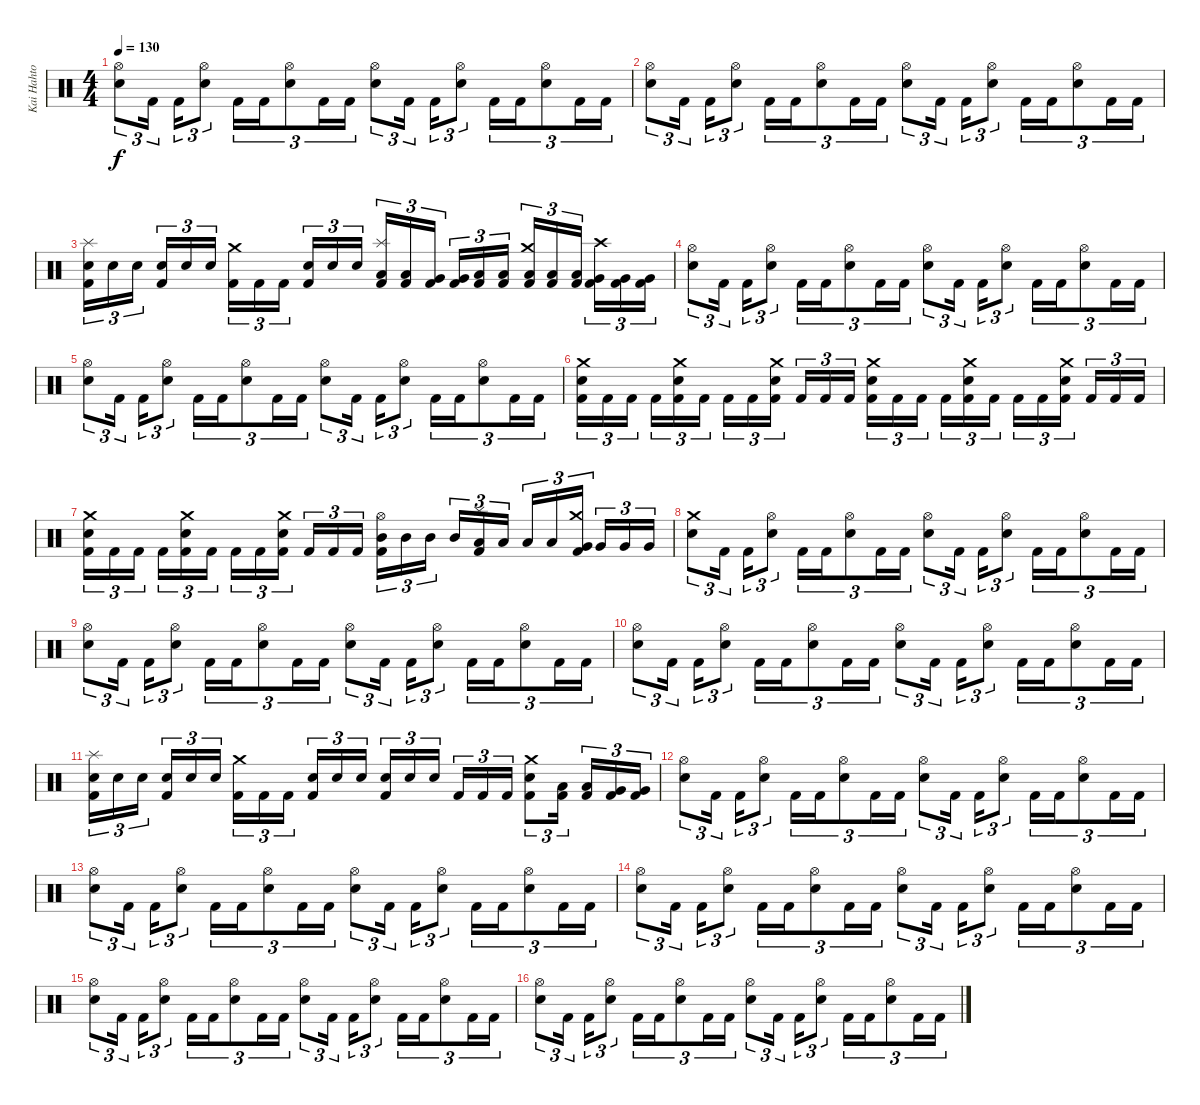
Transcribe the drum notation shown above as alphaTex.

\track ("Kai Hahto" "Kai Hahto") {instrument percussion}
\staff {score}
\articulation defaults
\ts (4 4)
\tempo 130
\clef neutral
\ks c
("Hi-Hat (open)" "Snare (hit) 2").8{tu (3 2) dy f} "Kick (hit) 2".16{tu (3 2) beam splitsecondary} "Kick (hit) 2".16{tu (3 2)} ("Hi-Hat (open)" "Snare (hit) 2").8{tu (3 2)} "Kick (hit) 2".16{tu (3 2)} "Kick (hit) 2".16{tu (3 2)} ("Hi-Hat (open)" "Snare (hit) 2").8{tu (3 2)} "Kick (hit) 2".16{tu (3 2)} "Kick (hit) 2".16{tu (3 2)} ("Hi-Hat (open)" "Snare (hit) 2").8{tu (3 2)} "Kick (hit) 2".16{tu (3 2) beam splitsecondary} "Kick (hit) 2".16{tu (3 2)} ("Hi-Hat (open)" "Snare (hit) 2").8{tu (3 2)} "Kick (hit) 2".16{tu (3 2)} "Kick (hit) 2".16{tu (3 2)} ("Hi-Hat (open)" "Snare (hit) 2").8{tu (3 2)} "Kick (hit) 2".16{tu (3 2)} "Kick (hit) 2".16{tu (3 2)} |
("Hi-Hat (open)" "Snare (hit) 2").8{tu (3 2)} "Kick (hit) 2".16{tu (3 2) beam splitsecondary} "Kick (hit) 2".16{tu (3 2)} ("Hi-Hat (open)" "Snare (hit) 2").8{tu (3 2)} "Kick (hit) 2".16{tu (3 2)} "Kick (hit) 2".16{tu (3 2)} ("Hi-Hat (open)" "Snare (hit) 2").8{tu (3 2)} "Kick (hit) 2".16{tu (3 2)} "Kick (hit) 2".16{tu (3 2)} ("Hi-Hat (open)" "Snare (hit) 2").8{tu (3 2)} "Kick (hit) 2".16{tu (3 2) beam splitsecondary} "Kick (hit) 2".16{tu (3 2)} ("Hi-Hat (open)" "Snare (hit) 2").8{tu (3 2)} "Kick (hit) 2".16{tu (3 2)} "Kick (hit) 2".16{tu (3 2)} ("Hi-Hat (open)" "Snare (hit) 2").8{tu (3 2)} "Kick (hit) 2".16{tu (3 2)} "Kick (hit) 2".16{tu (3 2)} |
("Splash (hit)" "Snare (hit) 2" "Kick (hit) 2").16{tu (3 2)} "Snare (hit) 2".16{tu (3 2)} "Snare (hit) 2".16{tu (3 2) beam splitsecondary} ("Snare (hit) 2" "Kick (hit) 2").16{tu (3 2)} "Snare (hit) 2".16{tu (3 2)} "Snare (hit) 2".16{tu (3 2)} ("Crash medium (hit)" "Kick (hit) 2").16{tu (3 2)} "Kick (hit) 2".16{tu (3 2)} "Kick (hit) 2".16{tu (3 2) beam splitsecondary} ("Snare (hit) 2" "Kick (hit) 2").16{tu (3 2)} "Snare (hit) 2".16{tu (3 2)} "Snare (hit) 2".16{tu (3 2)} ("Splash (hit)" "Low Tom (hit)" "Kick (hit) 2").16{tu (3 2)} ("Low Tom (hit)" "Kick (hit) 2").16{tu (3 2)} ("Very Low Tom (hit)" "Kick (hit) 2").16{tu (3 2) beam splitsecondary} ("Very Low Tom (hit)" "Kick (hit) 2").16{tu (3 2)} ("Low Floor Tom (hit)" "Kick (hit) 2").16{tu (3 2)} ("Low Floor Tom (hit)" "Kick (hit) 2").16{tu (3 2)} ("Crash medium (hit)" "Low Tom (hit)" "Kick (hit) 2").16{tu (3 2)} ("Low Tom (hit)" "Kick (hit) 2").16{tu (3 2)} ("Low Tom (hit)" "Kick (hit) 2").16{tu (3 2) beam splitsecondary} ("Crash high (hit)" "Very Low Tom (hit)" "Kick (hit) 2").16{tu (3 2)} ("Very Low Tom (hit)" "Kick (hit) 2").16{tu (3 2)} ("Very Low Tom (hit)" "Kick (hit) 2").16{tu (3 2)} |
("Hi-Hat (open)" "Snare (hit) 2").8{tu (3 2)} "Kick (hit) 2".16{tu (3 2) beam splitsecondary} "Kick (hit) 2".16{tu (3 2)} ("Hi-Hat (open)" "Snare (hit) 2").8{tu (3 2)} "Kick (hit) 2".16{tu (3 2)} "Kick (hit) 2".16{tu (3 2)} ("Hi-Hat (open)" "Snare (hit) 2").8{tu (3 2)} "Kick (hit) 2".16{tu (3 2)} "Kick (hit) 2".16{tu (3 2)} ("Hi-Hat (open)" "Snare (hit) 2").8{tu (3 2)} "Kick (hit) 2".16{tu (3 2) beam splitsecondary} "Kick (hit) 2".16{tu (3 2)} ("Hi-Hat (open)" "Snare (hit) 2").8{tu (3 2)} "Kick (hit) 2".16{tu (3 2)} "Kick (hit) 2".16{tu (3 2)} ("Hi-Hat (open)" "Snare (hit) 2").8{tu (3 2)} "Kick (hit) 2".16{tu (3 2)} "Kick (hit) 2".16{tu (3 2)} |
("Hi-Hat (open)" "Snare (hit) 2").8{tu (3 2)} "Kick (hit) 2".16{tu (3 2) beam splitsecondary} "Kick (hit) 2".16{tu (3 2)} ("Hi-Hat (open)" "Snare (hit) 2").8{tu (3 2)} "Kick (hit) 2".16{tu (3 2)} "Kick (hit) 2".16{tu (3 2)} ("Hi-Hat (open)" "Snare (hit) 2").8{tu (3 2)} "Kick (hit) 2".16{tu (3 2)} "Kick (hit) 2".16{tu (3 2)} ("Hi-Hat (open)" "Snare (hit) 2").8{tu (3 2)} "Kick (hit) 2".16{tu (3 2) beam splitsecondary} "Kick (hit) 2".16{tu (3 2)} ("Hi-Hat (open)" "Snare (hit) 2").8{tu (3 2)} "Kick (hit) 2".16{tu (3 2)} "Kick (hit) 2".16{tu (3 2)} ("Hi-Hat (open)" "Snare (hit) 2").8{tu (3 2)} "Kick (hit) 2".16{tu (3 2)} "Kick (hit) 2".16{tu (3 2)} |
("Crash medium (hit)" "Snare (hit) 2" "Kick (hit) 2").16{tu (3 2)} "Kick (hit) 2".16{tu (3 2)} "Kick (hit) 2".16{tu (3 2) beam splitsecondary} "Kick (hit) 2".16{tu (3 2)} ("Crash medium (hit)" "Snare (hit) 2" "Kick (hit) 2").16{tu (3 2)} "Kick (hit) 2".16{tu (3 2)} "Kick (hit) 2".16{tu (3 2)} "Kick (hit) 2".16{tu (3 2)} ("Crash medium (hit)" "Snare (hit) 2" "Kick (hit) 2").16{tu (3 2) beam splitsecondary} "Kick (hit) 2".16{tu (3 2)} "Kick (hit) 2".16{tu (3 2)} "Kick (hit) 2".16{tu (3 2)} ("Crash medium (hit)" "Snare (hit) 2" "Kick (hit) 2").16{tu (3 2)} "Kick (hit) 2".16{tu (3 2)} "Kick (hit) 2".16{tu (3 2) beam splitsecondary} "Kick (hit) 2".16{tu (3 2)} ("Crash medium (hit)" "Snare (hit) 2" "Kick (hit) 2").16{tu (3 2)} "Kick (hit) 2".16{tu (3 2)} "Kick (hit) 2".16{tu (3 2)} "Kick (hit) 2".16{tu (3 2)} ("Crash medium (hit)" "Snare (hit) 2" "Kick (hit) 2").16{tu (3 2) beam splitsecondary} "Kick (hit) 2".16{tu (3 2)} "Kick (hit) 2".16{tu (3 2)} "Kick (hit) 2".16{tu (3 2)} |
("Crash medium (hit)" "Snare (hit) 2" "Kick (hit) 2").16{tu (3 2)} "Kick (hit) 2".16{tu (3 2)} "Kick (hit) 2".16{tu (3 2) beam splitsecondary} "Kick (hit) 2".16{tu (3 2)} ("Crash medium (hit)" "Snare (hit) 2" "Kick (hit) 2").16{tu (3 2)} "Kick (hit) 2".16{tu (3 2)} "Kick (hit) 2".16{tu (3 2)} "Kick (hit) 2".16{tu (3 2)} ("Crash medium (hit)" "Snare (hit) 2" "Kick (hit) 2").16{tu (3 2) beam splitsecondary} "Kick (hit) 2".16{tu (3 2)} "Kick (hit) 2".16{tu (3 2)} "Kick (hit) 2".16{tu (3 2)} ("Hi-Hat (open)" "Mid Tom (hit)" "Kick (hit) 2").16{tu (3 2)} "Mid Tom (hit)".16{tu (3 2)} "Mid Tom (hit)".16{tu (3 2) beam splitsecondary} "Mid Tom (hit)".16{tu (3 2)} ("Splash (hit)" "Low Tom (hit)" "Kick (hit) 2").16{tu (3 2)} "Low Tom (hit)".16{tu (3 2)} "Low Tom (hit)".16{tu (3 2)} "Low Tom (hit)".16{tu (3 2)} ("Crash medium (hit)" "Very Low Tom (hit)" "Kick (hit) 2").16{tu (3 2) beam splitsecondary} "Very Low Tom (hit)".16{tu (3 2)} "Very Low Tom (hit)".16{tu (3 2)} "Very Low Tom (hit)".16{tu (3 2)} |
("Crash medium (hit)" "Snare (hit) 2").8{tu (3 2)} "Kick (hit) 2".16{tu (3 2) beam splitsecondary} "Kick (hit) 2".16{tu (3 2)} ("Hi-Hat (open)" "Snare (hit) 2").8{tu (3 2)} "Kick (hit) 2".16{tu (3 2)} "Kick (hit) 2".16{tu (3 2)} ("Hi-Hat (open)" "Snare (hit) 2").8{tu (3 2)} "Kick (hit) 2".16{tu (3 2)} "Kick (hit) 2".16{tu (3 2)} ("Hi-Hat (open)" "Snare (hit) 2").8{tu (3 2)} "Kick (hit) 2".16{tu (3 2) beam splitsecondary} "Kick (hit) 2".16{tu (3 2)} ("Hi-Hat (open)" "Snare (hit) 2").8{tu (3 2)} "Kick (hit) 2".16{tu (3 2)} "Kick (hit) 2".16{tu (3 2)} ("Hi-Hat (open)" "Snare (hit) 2").8{tu (3 2)} "Kick (hit) 2".16{tu (3 2)} "Kick (hit) 2".16{tu (3 2)} |
("Hi-Hat (open)" "Snare (hit) 2").8{tu (3 2)} "Kick (hit) 2".16{tu (3 2) beam splitsecondary} "Kick (hit) 2".16{tu (3 2)} ("Hi-Hat (open)" "Snare (hit) 2").8{tu (3 2)} "Kick (hit) 2".16{tu (3 2)} "Kick (hit) 2".16{tu (3 2)} ("Hi-Hat (open)" "Snare (hit) 2").8{tu (3 2)} "Kick (hit) 2".16{tu (3 2)} "Kick (hit) 2".16{tu (3 2)} ("Hi-Hat (open)" "Snare (hit) 2").8{tu (3 2)} "Kick (hit) 2".16{tu (3 2) beam splitsecondary} "Kick (hit) 2".16{tu (3 2)} ("Hi-Hat (open)" "Snare (hit) 2").8{tu (3 2)} "Kick (hit) 2".16{tu (3 2)} "Kick (hit) 2".16{tu (3 2)} ("Hi-Hat (open)" "Snare (hit) 2").8{tu (3 2)} "Kick (hit) 2".16{tu (3 2)} "Kick (hit) 2".16{tu (3 2)} |
("Hi-Hat (open)" "Snare (hit) 2").8{tu (3 2)} "Kick (hit) 2".16{tu (3 2) beam splitsecondary} "Kick (hit) 2".16{tu (3 2)} ("Hi-Hat (open)" "Snare (hit) 2").8{tu (3 2)} "Kick (hit) 2".16{tu (3 2)} "Kick (hit) 2".16{tu (3 2)} ("Hi-Hat (open)" "Snare (hit) 2").8{tu (3 2)} "Kick (hit) 2".16{tu (3 2)} "Kick (hit) 2".16{tu (3 2)} ("Hi-Hat (open)" "Snare (hit) 2").8{tu (3 2)} "Kick (hit) 2".16{tu (3 2) beam splitsecondary} "Kick (hit) 2".16{tu (3 2)} ("Hi-Hat (open)" "Snare (hit) 2").8{tu (3 2)} "Kick (hit) 2".16{tu (3 2)} "Kick (hit) 2".16{tu (3 2)} ("Hi-Hat (open)" "Snare (hit) 2").8{tu (3 2)} "Kick (hit) 2".16{tu (3 2)} "Kick (hit) 2".16{tu (3 2)} |
("Splash (hit)" "Snare (hit) 2" "Kick (hit) 2").16{tu (3 2)} "Snare (hit) 2".16{tu (3 2)} "Snare (hit) 2".16{tu (3 2) beam splitsecondary} ("Snare (hit) 2" "Kick (hit) 2").16{tu (3 2)} "Snare (hit) 2".16{tu (3 2)} "Snare (hit) 2".16{tu (3 2)} ("Crash medium (hit)" "Kick (hit) 2").16{tu (3 2)} "Kick (hit) 2".16{tu (3 2)} "Kick (hit) 2".16{tu (3 2) beam splitsecondary} ("Snare (hit) 2" "Kick (hit) 2").16{tu (3 2)} "Snare (hit) 2".16{tu (3 2)} "Snare (hit) 2".16{tu (3 2)} ("Snare (hit) 2" "Kick (hit) 2").16{tu (3 2)} "Snare (hit) 2".16{tu (3 2)} "Snare (hit) 2".16{tu (3 2) beam splitsecondary} "Kick (hit) 2".16{tu (3 2)} "Kick (hit) 2".16{tu (3 2)} "Kick (hit) 2".16{tu (3 2)} ("Crash medium (hit)" "Snare (hit) 2" "Kick (hit) 2").8{tu (3 2)} ("Low Tom (hit)" "Kick (hit) 2").16{tu (3 2) beam splitsecondary} ("Low Tom (hit)" "Kick (hit) 2").16{tu (3 2)} ("Very Low Tom (hit)" "Kick (hit) 2").16{tu (3 2)} ("Very Low Tom (hit)" "Kick (hit) 2").16{tu (3 2)} |
("Hi-Hat (open)" "Snare (hit) 2").8{tu (3 2)} "Kick (hit) 2".16{tu (3 2) beam splitsecondary} "Kick (hit) 2".16{tu (3 2)} ("Hi-Hat (open)" "Snare (hit) 2").8{tu (3 2)} "Kick (hit) 2".16{tu (3 2)} "Kick (hit) 2".16{tu (3 2)} ("Hi-Hat (open)" "Snare (hit) 2").8{tu (3 2)} "Kick (hit) 2".16{tu (3 2)} "Kick (hit) 2".16{tu (3 2)} ("Hi-Hat (open)" "Snare (hit) 2").8{tu (3 2)} "Kick (hit) 2".16{tu (3 2) beam splitsecondary} "Kick (hit) 2".16{tu (3 2)} ("Hi-Hat (open)" "Snare (hit) 2").8{tu (3 2)} "Kick (hit) 2".16{tu (3 2)} "Kick (hit) 2".16{tu (3 2)} ("Hi-Hat (open)" "Snare (hit) 2").8{tu (3 2)} "Kick (hit) 2".16{tu (3 2)} "Kick (hit) 2".16{tu (3 2)} |
("Hi-Hat (open)" "Snare (hit) 2").8{tu (3 2)} "Kick (hit) 2".16{tu (3 2) beam splitsecondary} "Kick (hit) 2".16{tu (3 2)} ("Hi-Hat (open)" "Snare (hit) 2").8{tu (3 2)} "Kick (hit) 2".16{tu (3 2)} "Kick (hit) 2".16{tu (3 2)} ("Hi-Hat (open)" "Snare (hit) 2").8{tu (3 2)} "Kick (hit) 2".16{tu (3 2)} "Kick (hit) 2".16{tu (3 2)} ("Hi-Hat (open)" "Snare (hit) 2").8{tu (3 2)} "Kick (hit) 2".16{tu (3 2) beam splitsecondary} "Kick (hit) 2".16{tu (3 2)} ("Hi-Hat (open)" "Snare (hit) 2").8{tu (3 2)} "Kick (hit) 2".16{tu (3 2)} "Kick (hit) 2".16{tu (3 2)} ("Hi-Hat (open)" "Snare (hit) 2").8{tu (3 2)} "Kick (hit) 2".16{tu (3 2)} "Kick (hit) 2".16{tu (3 2)} |
("Hi-Hat (open)" "Snare (hit) 2").8{tu (3 2)} "Kick (hit) 2".16{tu (3 2) beam splitsecondary} "Kick (hit) 2".16{tu (3 2)} ("Hi-Hat (open)" "Snare (hit) 2").8{tu (3 2)} "Kick (hit) 2".16{tu (3 2)} "Kick (hit) 2".16{tu (3 2)} ("Hi-Hat (open)" "Snare (hit) 2").8{tu (3 2)} "Kick (hit) 2".16{tu (3 2)} "Kick (hit) 2".16{tu (3 2)} ("Hi-Hat (open)" "Snare (hit) 2").8{tu (3 2)} "Kick (hit) 2".16{tu (3 2) beam splitsecondary} "Kick (hit) 2".16{tu (3 2)} ("Hi-Hat (open)" "Snare (hit) 2").8{tu (3 2)} "Kick (hit) 2".16{tu (3 2)} "Kick (hit) 2".16{tu (3 2)} ("Hi-Hat (open)" "Snare (hit) 2").8{tu (3 2)} "Kick (hit) 2".16{tu (3 2)} "Kick (hit) 2".16{tu (3 2)} |
("Hi-Hat (open)" "Snare (hit) 2").8{tu (3 2)} "Kick (hit) 2".16{tu (3 2) beam splitsecondary} "Kick (hit) 2".16{tu (3 2)} ("Hi-Hat (open)" "Snare (hit) 2").8{tu (3 2)} "Kick (hit) 2".16{tu (3 2)} "Kick (hit) 2".16{tu (3 2)} ("Hi-Hat (open)" "Snare (hit) 2").8{tu (3 2)} "Kick (hit) 2".16{tu (3 2)} "Kick (hit) 2".16{tu (3 2)} ("Hi-Hat (open)" "Snare (hit) 2").8{tu (3 2)} "Kick (hit) 2".16{tu (3 2) beam splitsecondary} "Kick (hit) 2".16{tu (3 2)} ("Hi-Hat (open)" "Snare (hit) 2").8{tu (3 2)} "Kick (hit) 2".16{tu (3 2)} "Kick (hit) 2".16{tu (3 2)} ("Hi-Hat (open)" "Snare (hit) 2").8{tu (3 2)} "Kick (hit) 2".16{tu (3 2)} "Kick (hit) 2".16{tu (3 2)} |
("Hi-Hat (open)" "Snare (hit) 2").8{tu (3 2)} "Kick (hit) 2".16{tu (3 2) beam splitsecondary} "Kick (hit) 2".16{tu (3 2)} ("Hi-Hat (open)" "Snare (hit) 2").8{tu (3 2)} "Kick (hit) 2".16{tu (3 2)} "Kick (hit) 2".16{tu (3 2)} ("Hi-Hat (open)" "Snare (hit) 2").8{tu (3 2)} "Kick (hit) 2".16{tu (3 2)} "Kick (hit) 2".16{tu (3 2)} ("Hi-Hat (open)" "Snare (hit) 2").8{tu (3 2)} "Kick (hit) 2".16{tu (3 2) beam splitsecondary} "Kick (hit) 2".16{tu (3 2)} ("Hi-Hat (open)" "Snare (hit) 2").8{tu (3 2)} "Kick (hit) 2".16{tu (3 2)} "Kick (hit) 2".16{tu (3 2)} ("Hi-Hat (open)" "Snare (hit) 2").8{tu (3 2)} "Kick (hit) 2".16{tu (3 2)} "Kick (hit) 2".16{tu (3 2)}
